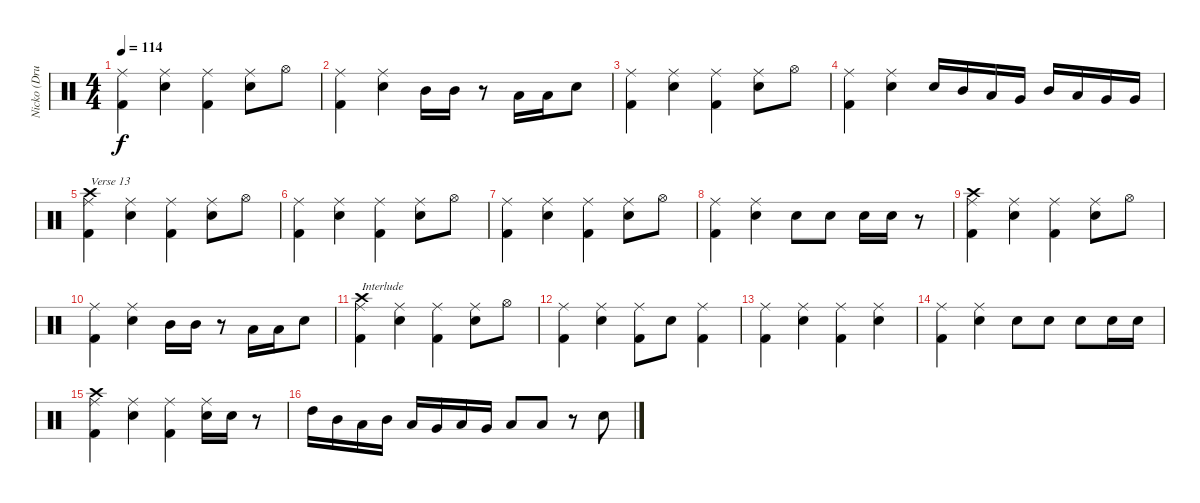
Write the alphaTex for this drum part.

\track ("Nicko (Drums)" "Nicko (Dru") {instrument percussion}
\staff {score}
\articulation defaults
\ts (4 4)
\tempo 114
\clef neutral
\ks c
("Ride (middle)" "Kick (hit) 2").4{dy f} ("Ride (middle)" "Snare (hit) 2").4 ("Ride (middle)" "Kick (hit) 2").4 ("Ride (middle)" "Snare (hit) 2").8 "Hi-Hat (open)".8 |
("Ride (middle)" "Kick (hit) 2").4 ("Ride (middle)" "Snare (hit) 2").4 "Mid Tom (hit)".16 "Mid Tom (hit)".16 r.8 "Low Tom (hit)".16 "Low Tom (hit)".16 "Snare (hit) 2".8 |
("Ride (middle)" "Kick (hit) 2").4 ("Ride (middle)" "Snare (hit) 2").4 ("Ride (middle)" "Kick (hit) 2").4 ("Ride (middle)" "Snare (hit) 2").8 "Hi-Hat (open)".8 |
("Ride (middle)" "Kick (hit) 2").4 ("Ride (middle)" "Snare (hit) 2").4 "Snare (hit) 2".16 "Mid Tom (hit)".16 "Low Tom (hit)".16 "Very Low Tom (hit)".16 "Mid Tom (hit)".16 "Low Tom (hit)".16 "Very Low Tom (hit)".16 "Very Low Tom (hit)".16 |
("Ride (middle)" "Kick (hit) 2" "Crash high (hit)").4{txt "Verse 13"} ("Ride (middle)" "Snare (hit) 2").4 ("Ride (middle)" "Kick (hit) 2").4 ("Ride (middle)" "Snare (hit) 2").8 "Hi-Hat (open)".8 |
("Ride (middle)" "Kick (hit) 2").4 ("Ride (middle)" "Snare (hit) 2").4 ("Ride (middle)" "Kick (hit) 2").4 ("Ride (middle)" "Snare (hit) 2").8 "Hi-Hat (open)".8 |
("Ride (middle)" "Kick (hit) 2").4 ("Ride (middle)" "Snare (hit) 2").4 ("Ride (middle)" "Kick (hit) 2").4 ("Ride (middle)" "Snare (hit) 2").8 "Hi-Hat (open)".8 |
("Ride (middle)" "Kick (hit) 2").4 ("Ride (middle)" "Snare (hit) 2").4 "Snare (hit) 2".8 "Snare (hit) 2".8 "Snare (hit) 2".16 "Snare (hit) 2".16 r.8 |
("Ride (middle)" "Kick (hit) 2" "Crash high (hit)").4 ("Ride (middle)" "Snare (hit) 2").4 ("Ride (middle)" "Kick (hit) 2").4 ("Ride (middle)" "Snare (hit) 2").8 "Hi-Hat (open)".8 |
("Ride (middle)" "Kick (hit) 2").4 ("Ride (middle)" "Snare (hit) 2").4 "Mid Tom (hit)".16 "Mid Tom (hit)".16 r.8 "Low Tom (hit)".16 "Low Tom (hit)".16 "Snare (hit) 2".8 |
("Ride (middle)" "Kick (hit) 2" "Crash high (hit)").4{txt "Interlude"} ("Ride (middle)" "Snare (hit) 2").4 ("Ride (middle)" "Kick (hit) 2").4 ("Ride (middle)" "Snare (hit) 2").8 "Hi-Hat (open)".8 |
("Ride (middle)" "Kick (hit) 2").4 ("Ride (middle)" "Snare (hit) 2").4 ("Ride (middle)" "Kick (hit) 2").8 "Snare (hit) 2".8 ("Ride (middle)" "Kick (hit) 2").4 |
("Ride (middle)" "Kick (hit) 2").4 ("Ride (middle)" "Snare (hit) 2").4 ("Ride (middle)" "Kick (hit) 2").4 ("Ride (middle)" "Snare (hit) 2").4 |
("Ride (middle)" "Kick (hit) 2").4 ("Ride (middle)" "Snare (hit) 2").4 "Snare (hit) 2".8 "Snare (hit) 2".8 "Snare (hit) 2".8 "Snare (hit) 2".16 "Snare (hit) 2".16 |
("Ride (middle)" "Kick (hit) 2" "Crash high (hit)").4 ("Ride (middle)" "Snare (hit) 2").4 ("Ride (middle)" "Kick (hit) 2").4 ("Ride (middle)" "Snare (hit) 2").16 "Snare (hit) 2".16 r.8 |
"High Tom (hit)".16 "Mid Tom (hit)".16 "Low Tom (hit)".16 "Mid Tom (hit)".16 "Low Tom (hit)".16 "Very Low Tom (hit)".16 "Low Tom (hit)".16 "Very Low Tom (hit)".16 "Low Floor Tom (hit)".8 "Low Floor Tom (hit)".8 r.8 "Snare (hit) 2".8
